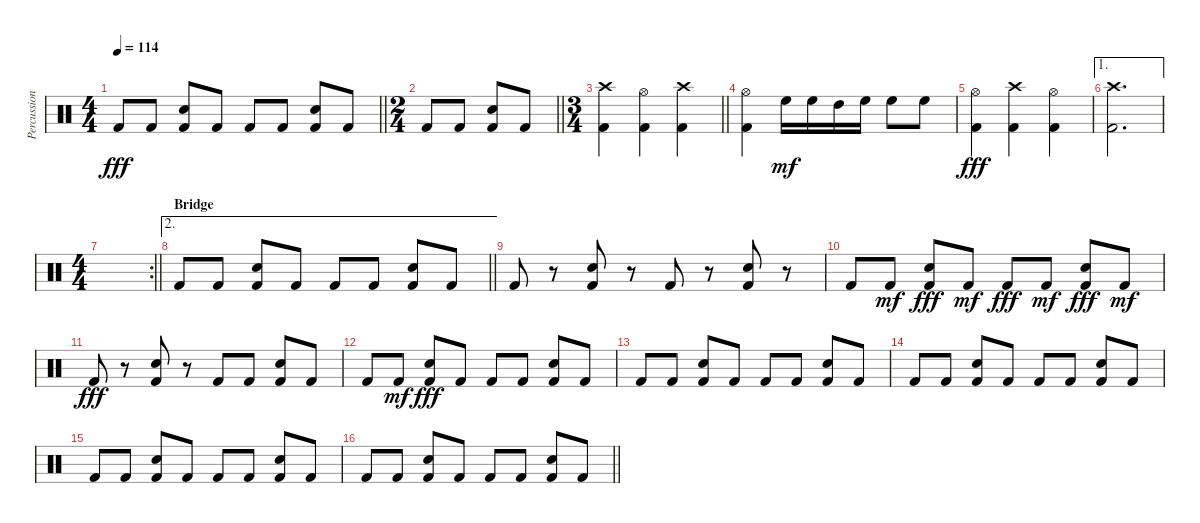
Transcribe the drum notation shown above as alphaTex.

\track ("Percussion" "Percussion") {instrument percussion}
\staff {score}
\articulation defaults
\ts (4 4)
\tempo 114
\clef neutral
\barLineRight lightlight
\ks c "Kick (hit) 2".8{dy fff} "Kick (hit) 2".8
("Snare (hit) 2" "Kick (hit) 2").8 "Kick (hit) 2".8 "Kick (hit) 2".8 "Kick (hit) 2".8 ("Snare (hit) 2" "Kick (hit) 2").8 "Kick (hit) 2".8 |
\ts (2 4)
\barLineRight lightlight "Kick (hit) 2".8 "Kick (hit) 2".8
("Snare (hit) 2" "Kick (hit) 2").8 "Kick (hit) 2".8 |
\ts (3 4)
\barLineRight lightlight
("Crash high (hit)" "Kick (hit) 2").4 ("Hi-Hat (open)" "Kick (hit) 2").4 ("Crash high (hit)" "Kick (hit) 2").4 |
("Hi-Hat (open)" "Kick (hit) 2").4 "High Floor Tom (hit)".16{dy mf} "High Floor Tom (hit)".16 "High Tom (hit)".16 "High Floor Tom (hit)".16 "High Floor Tom (hit)".8 "High Floor Tom (hit)".8 |
("Hi-Hat (open)" "Kick (hit) 2").4{dy fff} ("Crash high (hit)" "Kick (hit) 2").4 ("Hi-Hat (open)" "Kick (hit) 2").4 |
\ae 1
("Crash high (hit)" "Kick (hit) 2").2{d} |
\rc 2
\ts (4 4)
\barLineRight lightlight
|
\ae 2
\section ("" "Bridge")
\barLineRight lightlight "Kick (hit) 2".8{volume 8} "Kick (hit) 2".8
("Snare (hit) 2" "Kick (hit) 2").8 "Kick (hit) 2".8 "Kick (hit) 2".8 "Kick (hit) 2".8 ("Snare (hit) 2" "Kick (hit) 2").8 "Kick (hit) 2".8 |
"Kick (hit) 2".8 r.8 ("Snare (hit) 2" "Kick (hit) 2").8 r.8 "Kick (hit) 2".8 r.8 ("Snare (hit) 2" "Kick (hit) 2").8 r.8 |
"Kick (hit) 2".8 "Kick (hit) 2".8{dy mf} ("Snare (hit) 2" "Kick (hit) 2").8{dy fff} "Kick (hit) 2".8{dy mf} "Kick (hit) 2".8{dy fff} "Kick (hit) 2".8{dy mf} ("Snare (hit) 2" "Kick (hit) 2").8{dy fff} "Kick (hit) 2".8{dy mf} |
"Kick (hit) 2".8{dy fff} r.8 ("Snare (hit) 2" "Kick (hit) 2").8 r.8 "Kick (hit) 2".8 "Kick (hit) 2".8 ("Snare (hit) 2" "Kick (hit) 2").8 "Kick (hit) 2".8 |
"Kick (hit) 2".8 "Kick (hit) 2".8{dy mf} ("Snare (hit) 2" "Kick (hit) 2").8{dy fff} "Kick (hit) 2".8 "Kick (hit) 2".8 "Kick (hit) 2".8 ("Snare (hit) 2" "Kick (hit) 2").8 "Kick (hit) 2".8 |
"Kick (hit) 2".8 "Kick (hit) 2".8 ("Snare (hit) 2" "Kick (hit) 2").8 "Kick (hit) 2".8 "Kick (hit) 2".8 "Kick (hit) 2".8 ("Snare (hit) 2" "Kick (hit) 2").8 "Kick (hit) 2".8 |
"Kick (hit) 2".8 "Kick (hit) 2".8 ("Snare (hit) 2" "Kick (hit) 2").8 "Kick (hit) 2".8 "Kick (hit) 2".8 "Kick (hit) 2".8 ("Snare (hit) 2" "Kick (hit) 2").8 "Kick (hit) 2".8 |
"Kick (hit) 2".8 "Kick (hit) 2".8 ("Snare (hit) 2" "Kick (hit) 2").8 "Kick (hit) 2".8 "Kick (hit) 2".8 "Kick (hit) 2".8 ("Snare (hit) 2" "Kick (hit) 2").8 "Kick (hit) 2".8 |
\barLineRight lightlight "Kick (hit) 2".8{volume 12} "Kick (hit) 2".8
("Snare (hit) 2" "Kick (hit) 2").8 "Kick (hit) 2".8 "Kick (hit) 2".8 "Kick (hit) 2".8 ("Snare (hit) 2" "Kick (hit) 2").8 "Kick (hit) 2".8
